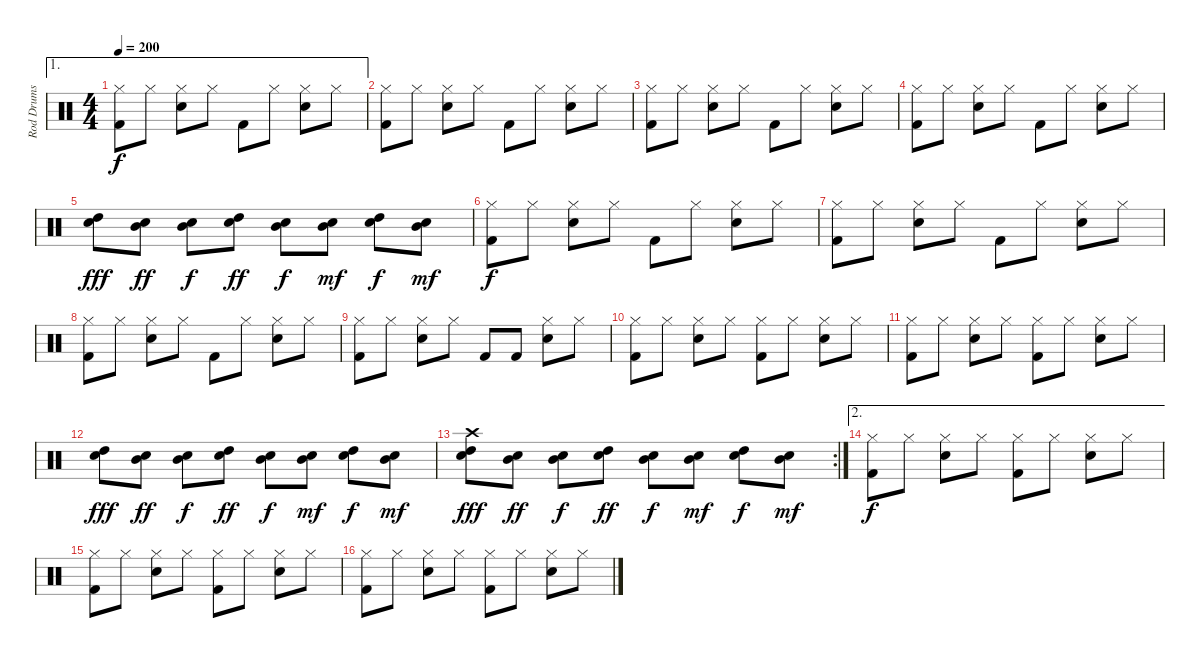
\track ("Rod Drums" "Rod Drums") {instrument percussion}
\staff {score}
\articulation defaults
\ae 1
\ts (4 4)
\tempo 200
\clef neutral
\ks c
("Kick (hit) 2" "Hi-Hat (closed)").8{dy f} "Hi-Hat (closed)".8 ("Snare (hit) 2" "Hi-Hat (closed)").8 "Hi-Hat (closed)".8 "Kick (hit) 2".8 "Hi-Hat (closed)".8 ("Snare (hit) 2" "Hi-Hat (closed)").8 "Hi-Hat (closed)".8 |
("Kick (hit) 2" "Hi-Hat (closed)").8 "Hi-Hat (closed)".8 ("Snare (hit) 2" "Hi-Hat (closed)").8 "Hi-Hat (closed)".8 "Kick (hit) 2".8 "Hi-Hat (closed)".8 ("Snare (hit) 2" "Hi-Hat (closed)").8 "Hi-Hat (closed)".8 |
("Kick (hit) 2" "Hi-Hat (closed)").8 "Hi-Hat (closed)".8 ("Snare (hit) 2" "Hi-Hat (closed)").8 "Hi-Hat (closed)".8 "Kick (hit) 2".8 "Hi-Hat (closed)".8 ("Snare (hit) 2" "Hi-Hat (closed)").8 "Hi-Hat (closed)".8 |
("Kick (hit) 2" "Hi-Hat (closed)").8 "Hi-Hat (closed)".8 ("Snare (hit) 2" "Hi-Hat (closed)").8 "Hi-Hat (closed)".8 "Kick (hit) 2".8 "Hi-Hat (closed)".8 ("Snare (hit) 2" "Hi-Hat (closed)").8 "Hi-Hat (closed)".8 |
("Snare (hit) 2" "High Tom (hit)").8{dy fff} ("Snare (hit) 2" "Mid Tom (hit)").8{dy ff} ("Snare (hit) 2" "Mid Tom (hit)").8{dy f} ("Snare (hit) 2" "High Tom (hit)").8{dy ff} ("Snare (hit) 2" "Mid Tom (hit)").8{dy f} ("Snare (hit) 2" "Mid Tom (hit)").8{dy mf} ("Snare (hit) 2" "High Tom (hit)").8{dy f} ("Snare (hit) 2" "Mid Tom (hit)").8{dy mf} |
("Kick (hit) 2" "Hi-Hat (closed)").8{dy f} "Hi-Hat (closed)".8 ("Snare (hit) 2" "Hi-Hat (closed)").8 "Hi-Hat (closed)".8 "Kick (hit) 2".8 "Hi-Hat (closed)".8 ("Snare (hit) 2" "Hi-Hat (closed)").8 "Hi-Hat (closed)".8 |
("Kick (hit) 2" "Hi-Hat (closed)").8 "Hi-Hat (closed)".8 ("Snare (hit) 2" "Hi-Hat (closed)").8 "Hi-Hat (closed)".8 "Kick (hit) 2".8 "Hi-Hat (closed)".8 ("Snare (hit) 2" "Hi-Hat (closed)").8 "Hi-Hat (closed)".8 |
("Kick (hit) 2" "Hi-Hat (closed)").8 "Hi-Hat (closed)".8 ("Snare (hit) 2" "Hi-Hat (closed)").8 "Hi-Hat (closed)".8 "Kick (hit) 2".8 "Hi-Hat (closed)".8 ("Snare (hit) 2" "Hi-Hat (closed)").8 "Hi-Hat (closed)".8 |
("Kick (hit) 2" "Hi-Hat (closed)").8 "Hi-Hat (closed)".8 ("Snare (hit) 2" "Hi-Hat (closed)").8 "Hi-Hat (closed)".8 "Kick (hit) 2".8 "Kick (hit) 2".8 ("Snare (hit) 2" "Hi-Hat (closed)").8 "Hi-Hat (closed)".8 |
("Kick (hit) 2" "Hi-Hat (closed)").8 "Hi-Hat (closed)".8 ("Snare (hit) 2" "Hi-Hat (closed)").8 "Hi-Hat (closed)".8 ("Kick (hit) 2" "Hi-Hat (closed)").8 "Hi-Hat (closed)".8 ("Snare (hit) 2" "Hi-Hat (closed)").8 "Hi-Hat (closed)".8 |
("Kick (hit) 2" "Hi-Hat (closed)").8 "Hi-Hat (closed)".8 ("Snare (hit) 2" "Hi-Hat (closed)").8 "Hi-Hat (closed)".8 ("Kick (hit) 2" "Hi-Hat (closed)").8 "Hi-Hat (closed)".8 ("Snare (hit) 2" "Hi-Hat (closed)").8 "Hi-Hat (closed)".8 |
("Snare (hit) 2" "High Tom (hit)").8{dy fff} ("Snare (hit) 2" "Mid Tom (hit)").8{dy ff} ("Snare (hit) 2" "Mid Tom (hit)").8{dy f} ("Snare (hit) 2" "High Tom (hit)").8{dy ff} ("Snare (hit) 2" "Mid Tom (hit)").8{dy f} ("Snare (hit) 2" "Mid Tom (hit)").8{dy mf} ("Snare (hit) 2" "High Tom (hit)").8{dy f} ("Snare (hit) 2" "Mid Tom (hit)").8{dy mf} |
\rc 2
("Snare (hit) 2" "High Tom (hit)" "Crash high (hit)").8{dy fff} ("Snare (hit) 2" "Mid Tom (hit)").8{dy ff} ("Snare (hit) 2" "Mid Tom (hit)").8{dy f} ("Snare (hit) 2" "High Tom (hit)").8{dy ff} ("Snare (hit) 2" "Mid Tom (hit)").8{dy f} ("Snare (hit) 2" "Mid Tom (hit)").8{dy mf} ("Snare (hit) 2" "High Tom (hit)").8{dy f} ("Snare (hit) 2" "Mid Tom (hit)").8{dy mf} |
\ae 2
("Kick (hit) 2" "Hi-Hat (closed)").8{dy f} "Hi-Hat (closed)".8 ("Snare (hit) 2" "Hi-Hat (closed)").8 "Hi-Hat (closed)".8 ("Kick (hit) 2" "Hi-Hat (closed)").8 "Hi-Hat (closed)".8 ("Snare (hit) 2" "Hi-Hat (closed)").8 "Hi-Hat (closed)".8 |
("Kick (hit) 2" "Hi-Hat (closed)").8 "Hi-Hat (closed)".8 ("Snare (hit) 2" "Hi-Hat (closed)").8 "Hi-Hat (closed)".8 ("Kick (hit) 2" "Hi-Hat (closed)").8 "Hi-Hat (closed)".8 ("Snare (hit) 2" "Hi-Hat (closed)").8 "Hi-Hat (closed)".8 |
("Kick (hit) 2" "Hi-Hat (closed)").8 "Hi-Hat (closed)".8 ("Snare (hit) 2" "Hi-Hat (closed)").8 "Hi-Hat (closed)".8 ("Kick (hit) 2" "Hi-Hat (closed)").8 "Hi-Hat (closed)".8 ("Snare (hit) 2" "Hi-Hat (closed)").8 "Hi-Hat (closed)".8
